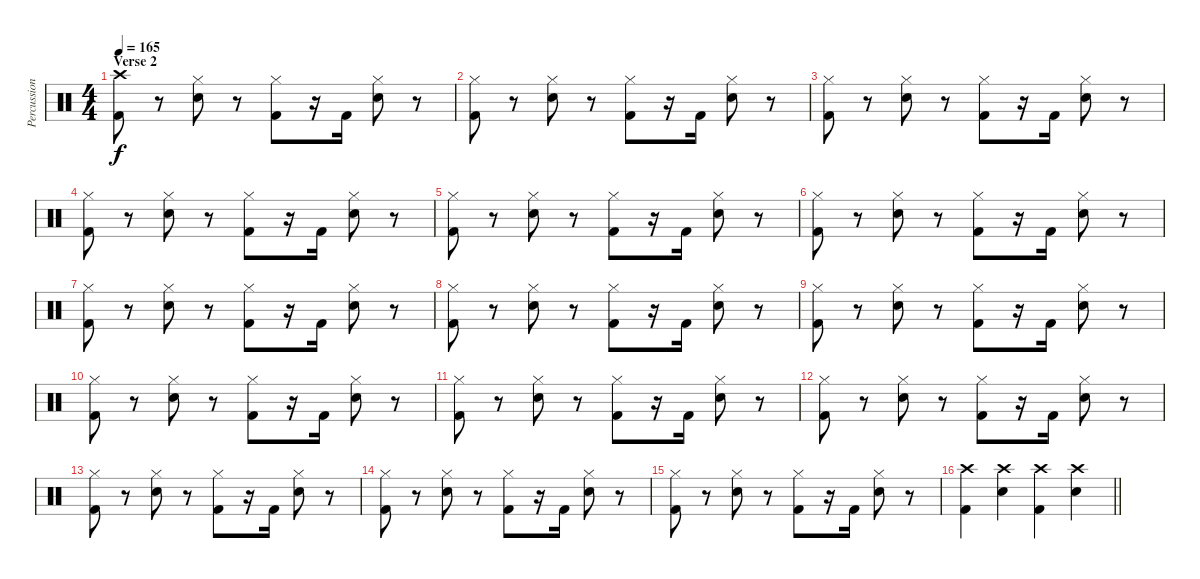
\track ("Percussion" "Percussion") {instrument percussion}
\staff {score}
\articulation defaults
\ts (4 4)
\section ("" "Verse 2")
\tempo 165
\clef neutral
\ks c
("Crash high (hit)" "Kick (hit) 2").8{dy f} r.8 ("Hi-Hat (closed)" "Snare (hit) 2").8 r.8 ("Hi-Hat (closed)" "Kick (hit) 2").8 r.16 "Kick (hit) 2".16 ("Hi-Hat (closed)" "Snare (hit) 2").8 r.8 |
("Hi-Hat (closed)" "Kick (hit) 2").8 r.8 ("Hi-Hat (closed)" "Snare (hit) 2").8 r.8 ("Hi-Hat (closed)" "Kick (hit) 2").8 r.16 "Kick (hit) 2".16 ("Hi-Hat (closed)" "Snare (hit) 2").8 r.8 |
("Hi-Hat (closed)" "Kick (hit) 2").8 r.8 ("Hi-Hat (closed)" "Snare (hit) 2").8 r.8 ("Hi-Hat (closed)" "Kick (hit) 2").8 r.16 "Kick (hit) 2".16 ("Hi-Hat (closed)" "Snare (hit) 2").8 r.8 |
("Hi-Hat (closed)" "Kick (hit) 2").8 r.8 ("Hi-Hat (closed)" "Snare (hit) 2").8 r.8 ("Hi-Hat (closed)" "Kick (hit) 2").8 r.16 "Kick (hit) 2".16 ("Hi-Hat (closed)" "Snare (hit) 2").8 r.8 |
("Hi-Hat (closed)" "Kick (hit) 2").8 r.8 ("Hi-Hat (closed)" "Snare (hit) 2").8 r.8 ("Hi-Hat (closed)" "Kick (hit) 2").8 r.16 "Kick (hit) 2".16 ("Hi-Hat (closed)" "Snare (hit) 2").8 r.8 |
("Hi-Hat (closed)" "Kick (hit) 2").8 r.8 ("Hi-Hat (closed)" "Snare (hit) 2").8 r.8 ("Hi-Hat (closed)" "Kick (hit) 2").8 r.16 "Kick (hit) 2".16 ("Hi-Hat (closed)" "Snare (hit) 2").8 r.8 |
("Hi-Hat (closed)" "Kick (hit) 2").8 r.8 ("Hi-Hat (closed)" "Snare (hit) 2").8 r.8 ("Hi-Hat (closed)" "Kick (hit) 2").8 r.16 "Kick (hit) 2".16 ("Hi-Hat (closed)" "Snare (hit) 2").8 r.8 |
("Hi-Hat (closed)" "Kick (hit) 2").8 r.8 ("Hi-Hat (closed)" "Snare (hit) 2").8 r.8 ("Hi-Hat (closed)" "Kick (hit) 2").8 r.16 "Kick (hit) 2".16 ("Hi-Hat (closed)" "Snare (hit) 2").8 r.8 |
("Hi-Hat (closed)" "Kick (hit) 2").8 r.8 ("Hi-Hat (closed)" "Snare (hit) 2").8 r.8 ("Hi-Hat (closed)" "Kick (hit) 2").8 r.16 "Kick (hit) 2".16 ("Hi-Hat (closed)" "Snare (hit) 2").8 r.8 |
("Hi-Hat (closed)" "Kick (hit) 2").8 r.8 ("Hi-Hat (closed)" "Snare (hit) 2").8 r.8 ("Hi-Hat (closed)" "Kick (hit) 2").8 r.16 "Kick (hit) 2".16 ("Hi-Hat (closed)" "Snare (hit) 2").8 r.8 |
("Hi-Hat (closed)" "Kick (hit) 2").8 r.8 ("Hi-Hat (closed)" "Snare (hit) 2").8 r.8 ("Hi-Hat (closed)" "Kick (hit) 2").8 r.16 "Kick (hit) 2".16 ("Hi-Hat (closed)" "Snare (hit) 2").8 r.8 |
("Hi-Hat (closed)" "Kick (hit) 2").8 r.8 ("Hi-Hat (closed)" "Snare (hit) 2").8 r.8 ("Hi-Hat (closed)" "Kick (hit) 2").8 r.16 "Kick (hit) 2".16 ("Hi-Hat (closed)" "Snare (hit) 2").8 r.8 |
("Hi-Hat (closed)" "Kick (hit) 2").8 r.8 ("Hi-Hat (closed)" "Snare (hit) 2").8 r.8 ("Hi-Hat (closed)" "Kick (hit) 2").8 r.16 "Kick (hit) 2".16 ("Hi-Hat (closed)" "Snare (hit) 2").8 r.8 |
("Hi-Hat (closed)" "Kick (hit) 2").8 r.8 ("Hi-Hat (closed)" "Snare (hit) 2").8 r.8 ("Hi-Hat (closed)" "Kick (hit) 2").8 r.16 "Kick (hit) 2".16 ("Hi-Hat (closed)" "Snare (hit) 2").8 r.8 |
("Hi-Hat (closed)" "Kick (hit) 2").8 r.8 ("Hi-Hat (closed)" "Snare (hit) 2").8 r.8 ("Hi-Hat (closed)" "Kick (hit) 2").8 r.16 "Kick (hit) 2".16 ("Hi-Hat (closed)" "Snare (hit) 2").8 r.8 |
\barLineRight lightlight
("Crash high (hit)" "Kick (hit) 2").4 ("Crash high (hit)" "Snare (hit) 2").4 ("Crash high (hit)" "Kick (hit) 2").4 ("Crash high (hit)" "Snare (hit) 2").4
